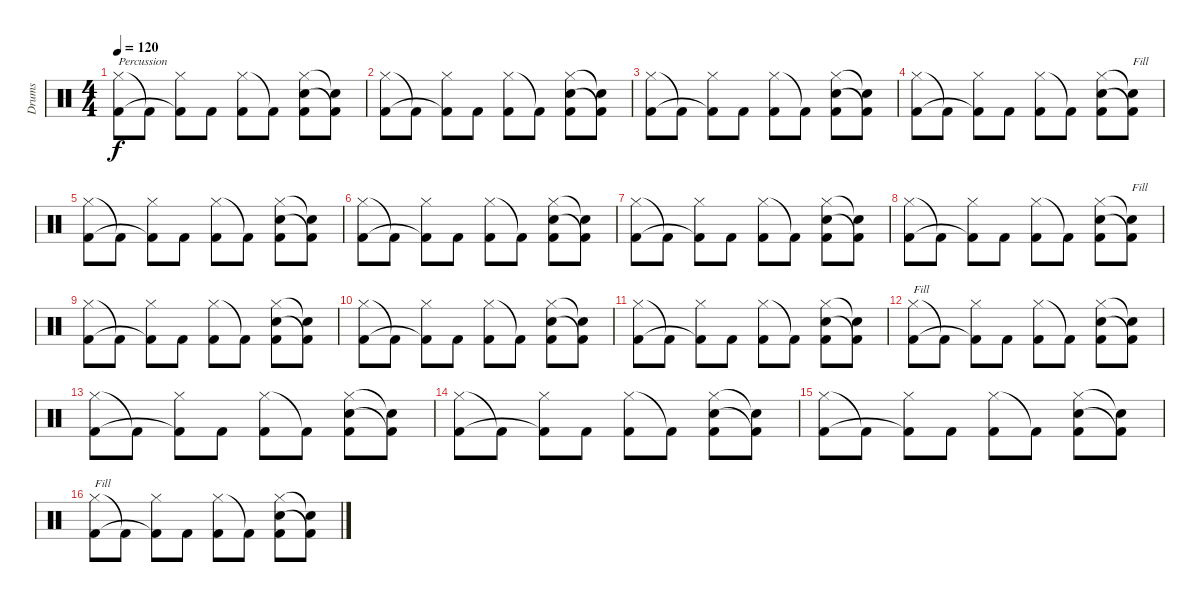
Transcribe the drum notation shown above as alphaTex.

\track ("Drums" "Drums") {instrument percussion}
\staff {score}
\articulation defaults
\ts (4 4)
\tempo 120
\clef neutral
\ks c
("Hi-Hat (closed)" "Kick (hit) 2").8{txt "Percussion" dy f} "Kick (hit) 2"{t}.8 ("Hi-Hat (closed)" "Kick (hit) 2"{t}).8 "Kick (hit) 2".8 ("Hi-Hat (closed)" "Kick (hit) 2").8 "Kick (hit) 2"{t}.8 ("Hi-Hat (closed)" "Snare (hit) 2" "Kick (hit) 2").8 ("Snare (hit) 2"{t} "Kick (hit) 2"{t}).8 |
("Hi-Hat (closed)" "Kick (hit) 2").8 "Kick (hit) 2"{t}.8 ("Hi-Hat (closed)" "Kick (hit) 2"{t}).8 "Kick (hit) 2".8 ("Hi-Hat (closed)" "Kick (hit) 2").8 "Kick (hit) 2"{t}.8 ("Hi-Hat (closed)" "Snare (hit) 2" "Kick (hit) 2").8 ("Snare (hit) 2"{t} "Kick (hit) 2"{t}).8 |
("Hi-Hat (closed)" "Kick (hit) 2").8 "Kick (hit) 2"{t}.8 ("Hi-Hat (closed)" "Kick (hit) 2"{t}).8 "Kick (hit) 2".8 ("Hi-Hat (closed)" "Kick (hit) 2").8 "Kick (hit) 2"{t}.8 ("Hi-Hat (closed)" "Snare (hit) 2" "Kick (hit) 2").8 ("Snare (hit) 2"{t} "Kick (hit) 2"{t}).8 |
("Hi-Hat (closed)" "Kick (hit) 2").8 "Kick (hit) 2"{t}.8 ("Hi-Hat (closed)" "Kick (hit) 2"{t}).8 "Kick (hit) 2".8 ("Hi-Hat (closed)" "Kick (hit) 2").8 "Kick (hit) 2"{t}.8 ("Hi-Hat (closed)" "Snare (hit) 2" "Kick (hit) 2").8 ("Snare (hit) 2"{t} "Kick (hit) 2"{t}).8{txt "Fill"} |
("Hi-Hat (closed)" "Kick (hit) 2").8 "Kick (hit) 2"{t}.8 ("Hi-Hat (closed)" "Kick (hit) 2"{t}).8 "Kick (hit) 2".8 ("Hi-Hat (closed)" "Kick (hit) 2").8 "Kick (hit) 2"{t}.8 ("Hi-Hat (closed)" "Snare (hit) 2" "Kick (hit) 2").8 ("Snare (hit) 2"{t} "Kick (hit) 2"{t}).8 |
("Hi-Hat (closed)" "Kick (hit) 2").8 "Kick (hit) 2"{t}.8 ("Hi-Hat (closed)" "Kick (hit) 2"{t}).8 "Kick (hit) 2".8 ("Hi-Hat (closed)" "Kick (hit) 2").8 "Kick (hit) 2"{t}.8 ("Hi-Hat (closed)" "Snare (hit) 2" "Kick (hit) 2").8 ("Snare (hit) 2"{t} "Kick (hit) 2"{t}).8 |
("Hi-Hat (closed)" "Kick (hit) 2").8 "Kick (hit) 2"{t}.8 ("Hi-Hat (closed)" "Kick (hit) 2"{t}).8 "Kick (hit) 2".8 ("Hi-Hat (closed)" "Kick (hit) 2").8 "Kick (hit) 2"{t}.8 ("Hi-Hat (closed)" "Snare (hit) 2" "Kick (hit) 2").8 ("Snare (hit) 2"{t} "Kick (hit) 2"{t}).8 |
("Hi-Hat (closed)" "Kick (hit) 2").8 "Kick (hit) 2"{t}.8 ("Hi-Hat (closed)" "Kick (hit) 2"{t}).8 "Kick (hit) 2".8 ("Hi-Hat (closed)" "Kick (hit) 2").8 "Kick (hit) 2"{t}.8 ("Hi-Hat (closed)" "Snare (hit) 2" "Kick (hit) 2").8 ("Snare (hit) 2"{t} "Kick (hit) 2"{t}).8{txt "Fill"} |
("Hi-Hat (closed)" "Kick (hit) 2").8 "Kick (hit) 2"{t}.8 ("Hi-Hat (closed)" "Kick (hit) 2"{t}).8 "Kick (hit) 2".8 ("Hi-Hat (closed)" "Kick (hit) 2").8 "Kick (hit) 2"{t}.8 ("Hi-Hat (closed)" "Snare (hit) 2" "Kick (hit) 2").8 ("Snare (hit) 2"{t} "Kick (hit) 2"{t}).8 |
("Hi-Hat (closed)" "Kick (hit) 2").8 "Kick (hit) 2"{t}.8 ("Hi-Hat (closed)" "Kick (hit) 2"{t}).8 "Kick (hit) 2".8 ("Hi-Hat (closed)" "Kick (hit) 2").8 "Kick (hit) 2"{t}.8 ("Hi-Hat (closed)" "Snare (hit) 2" "Kick (hit) 2").8 ("Snare (hit) 2"{t} "Kick (hit) 2"{t}).8 |
("Hi-Hat (closed)" "Kick (hit) 2").8 "Kick (hit) 2"{t}.8 ("Hi-Hat (closed)" "Kick (hit) 2"{t}).8 "Kick (hit) 2".8 ("Hi-Hat (closed)" "Kick (hit) 2").8 "Kick (hit) 2"{t}.8 ("Hi-Hat (closed)" "Snare (hit) 2" "Kick (hit) 2").8 ("Snare (hit) 2"{t} "Kick (hit) 2"{t}).8 |
("Hi-Hat (closed)" "Kick (hit) 2").8{txt "Fill"} "Kick (hit) 2"{t}.8 ("Hi-Hat (closed)" "Kick (hit) 2"{t}).8 "Kick (hit) 2".8 ("Hi-Hat (closed)" "Kick (hit) 2").8 "Kick (hit) 2"{t}.8 ("Hi-Hat (closed)" "Snare (hit) 2" "Kick (hit) 2").8 ("Snare (hit) 2"{t} "Kick (hit) 2"{t}).8 |
("Hi-Hat (closed)" "Kick (hit) 2").8 "Kick (hit) 2"{t}.8 ("Hi-Hat (closed)" "Kick (hit) 2"{t}).8 "Kick (hit) 2".8 ("Hi-Hat (closed)" "Kick (hit) 2").8 "Kick (hit) 2"{t}.8 ("Hi-Hat (closed)" "Snare (hit) 2" "Kick (hit) 2").8 ("Snare (hit) 2"{t} "Kick (hit) 2"{t}).8 |
("Hi-Hat (closed)" "Kick (hit) 2").8 "Kick (hit) 2"{t}.8 ("Hi-Hat (closed)" "Kick (hit) 2"{t}).8 "Kick (hit) 2".8 ("Hi-Hat (closed)" "Kick (hit) 2").8 "Kick (hit) 2"{t}.8 ("Hi-Hat (closed)" "Snare (hit) 2" "Kick (hit) 2").8 ("Snare (hit) 2"{t} "Kick (hit) 2"{t}).8 |
("Hi-Hat (closed)" "Kick (hit) 2").8 "Kick (hit) 2"{t}.8 ("Hi-Hat (closed)" "Kick (hit) 2"{t}).8 "Kick (hit) 2".8 ("Hi-Hat (closed)" "Kick (hit) 2").8 "Kick (hit) 2"{t}.8 ("Hi-Hat (closed)" "Snare (hit) 2" "Kick (hit) 2").8 ("Snare (hit) 2"{t} "Kick (hit) 2"{t}).8 |
("Hi-Hat (closed)" "Kick (hit) 2").8{txt "Fill"} "Kick (hit) 2"{t}.8 ("Hi-Hat (closed)" "Kick (hit) 2"{t}).8 "Kick (hit) 2".8 ("Hi-Hat (closed)" "Kick (hit) 2").8 "Kick (hit) 2"{t}.8 ("Hi-Hat (closed)" "Snare (hit) 2" "Kick (hit) 2").8 ("Snare (hit) 2"{t} "Kick (hit) 2"{t}).8
